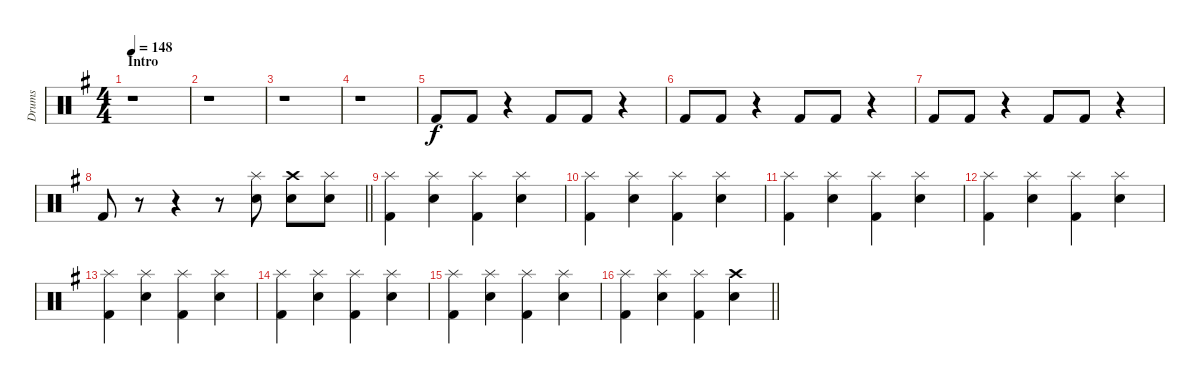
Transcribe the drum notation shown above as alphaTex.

\track ("Drums" "Drums") {instrument percussion}
\staff {score}
\articulation defaults
\ts (4 4)
\section ("" "Intro")
\tempo 148
\clef neutral
\ks g
r.1{dy f} |
r.1 |
r.1 |
r.1 |
"Kick (hit) 2".8 "Kick (hit) 2".8 r.4 "Kick (hit) 2".8 "Kick (hit) 2".8 r.4 |
"Kick (hit) 2".8 "Kick (hit) 2".8 r.4 "Kick (hit) 2".8 "Kick (hit) 2".8 r.4 |
"Kick (hit) 2".8 "Kick (hit) 2".8 r.4 "Kick (hit) 2".8 "Kick (hit) 2".8 r.4 |
\barLineRight lightlight "Kick (hit) 2".8
r.8 r.4 r.8 ("Snare (hit) 2" "Splash (hit)").8 ("Snare (hit) 2" "Crash high (hit)").8 ("Snare (hit) 2" "Splash (hit)").8 |
("Kick (hit) 2" "Splash (hit)").4 ("Snare (hit) 2" "Splash (hit)").4 ("Kick (hit) 2" "Splash (hit)").4 ("Snare (hit) 2" "Splash (hit)").4 |
("Kick (hit) 2" "Splash (hit)").4 ("Snare (hit) 2" "Splash (hit)").4 ("Kick (hit) 2" "Splash (hit)").4 ("Snare (hit) 2" "Splash (hit)").4 |
("Kick (hit) 2" "Splash (hit)").4 ("Snare (hit) 2" "Splash (hit)").4 ("Kick (hit) 2" "Splash (hit)").4 ("Snare (hit) 2" "Splash (hit)").4 |
("Kick (hit) 2" "Splash (hit)").4 ("Snare (hit) 2" "Splash (hit)").4 ("Kick (hit) 2" "Splash (hit)").4 ("Snare (hit) 2" "Splash (hit)").4 |
("Kick (hit) 2" "Splash (hit)").4 ("Snare (hit) 2" "Splash (hit)").4 ("Kick (hit) 2" "Splash (hit)").4 ("Snare (hit) 2" "Splash (hit)").4 |
("Kick (hit) 2" "Splash (hit)").4 ("Snare (hit) 2" "Splash (hit)").4 ("Kick (hit) 2" "Splash (hit)").4 ("Snare (hit) 2" "Splash (hit)").4 |
("Kick (hit) 2" "Splash (hit)").4 ("Snare (hit) 2" "Splash (hit)").4 ("Kick (hit) 2" "Splash (hit)").4 ("Snare (hit) 2" "Splash (hit)").4 |
\barLineRight lightlight
("Kick (hit) 2" "Splash (hit)").4 ("Snare (hit) 2" "Splash (hit)").4 ("Kick (hit) 2" "Splash (hit)").4 ("Snare (hit) 2" "Crash high (hit)").4
